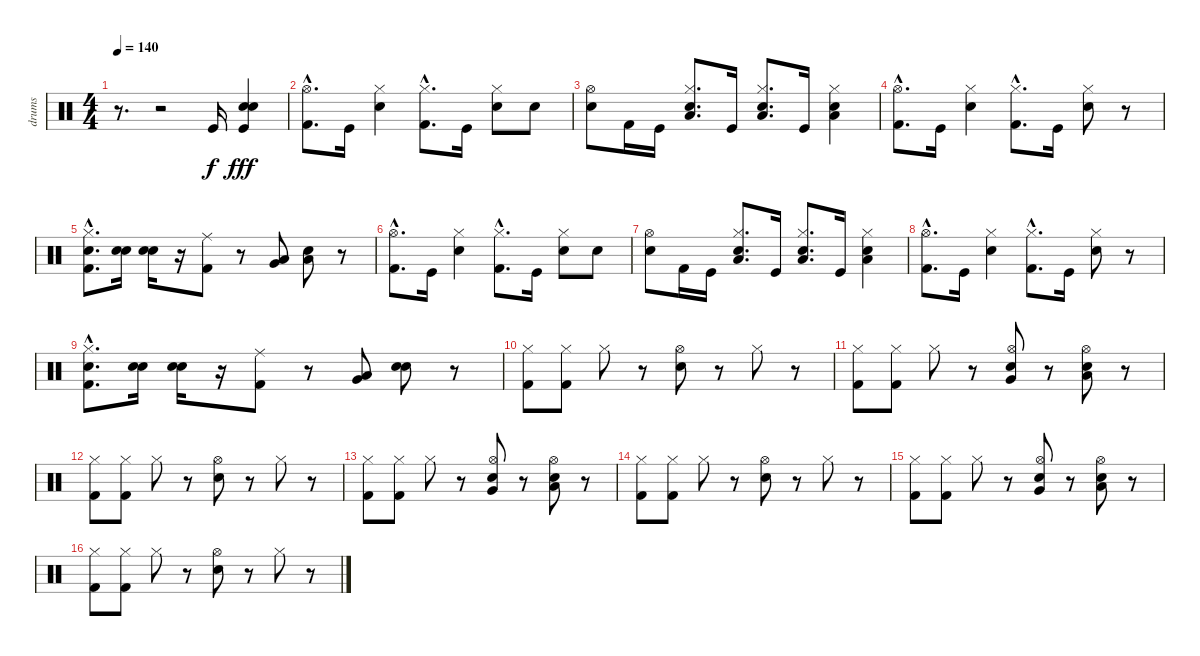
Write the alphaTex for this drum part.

\track ("drums" "drums") {instrument percussion}
\staff {score}
\articulation defaults
\ts (4 4)
\tempo 140
\clef neutral
\ks c
r.8{d dy f} r.2 "Kick (hit)".16 ("Electric Snare (hit)" "Kick (hit)" "Snare (hit) 2").4{dy fff} |
("Hi-Hat (open)"{hac} "Kick (hit) 2"{hac}).8{d} "Kick (hit)".16 ("Hi-Hat (closed)" "Snare (hit) 2").4 ("Hi-Hat (closed)"{hac} "Kick (hit) 2"{hac}).8{d} "Kick (hit)".16 ("Hi-Hat (closed)" "Snare (hit) 2").8 "Snare (hit) 2".8 |
("Hi-Hat (open)" "Snare (hit) 2").8 "Kick (hit) 2".16 "Kick (hit)".16 ("Hi-Hat (closed)" "Low Tom (hit)" "Snare (hit) 2").8{d} "Kick (hit)".16 ("Hi-Hat (closed)" "Low Tom (hit)" "Snare (hit) 2").8{d} "Kick (hit)".16 ("Hi-Hat (closed)" "Low Tom (hit)" "Snare (hit) 2").4 |
("Hi-Hat (open)"{hac} "Kick (hit) 2"{hac}).8{d} "Kick (hit)".16 ("Hi-Hat (closed)" "Snare (hit) 2").4 ("Hi-Hat (closed)"{hac} "Kick (hit) 2"{hac}).8{d} "Kick (hit)".16 ("Hi-Hat (closed)" "Snare (hit) 2").8 r.8 |
("Hi-Hat (closed)" "Snare (hit) 2"{hac} "Kick (hit) 2").8{d} ("Electric Snare (hit)" "Snare (hit) 2").16 ("Snare (hit) 2" "Electric Snare (hit)").16 r.16 ("Ride (middle)" "Kick (hit) 2").8 r.8 ("Very Low Tom (hit)" "Low Tom (hit)").8 ("Low Tom (hit)" "Snare (hit) 2").8 r.8 |
("Hi-Hat (open)"{hac} "Kick (hit) 2"{hac}).8{d} "Kick (hit)".16 ("Hi-Hat (closed)" "Snare (hit) 2").4 ("Hi-Hat (closed)"{hac} "Kick (hit) 2"{hac}).8{d} "Kick (hit)".16 ("Hi-Hat (closed)" "Snare (hit) 2").8 "Snare (hit) 2".8 |
("Hi-Hat (open)" "Snare (hit) 2").8 "Kick (hit) 2".16 "Kick (hit)".16 ("Hi-Hat (closed)" "Low Tom (hit)" "Snare (hit) 2").8{d} "Kick (hit)".16 ("Hi-Hat (closed)" "Low Tom (hit)" "Snare (hit) 2").8{d} "Kick (hit)".16 ("Hi-Hat (closed)" "Low Tom (hit)" "Snare (hit) 2").4 |
("Hi-Hat (open)"{hac} "Kick (hit) 2"{hac}).8{d} "Kick (hit)".16 ("Hi-Hat (closed)" "Snare (hit) 2").4 ("Hi-Hat (closed)"{hac} "Kick (hit) 2"{hac}).8{d} "Kick (hit)".16 ("Hi-Hat (closed)" "Snare (hit) 2").8 r.8 |
("Hi-Hat (closed)" "Snare (hit) 2"{hac} "Kick (hit) 2").8{d} ("Electric Snare (hit)" "Snare (hit) 2").16 ("Snare (hit) 2" "Electric Snare (hit)").16 r.16 ("Ride (middle)" "Kick (hit) 2").8 r.8 ("Very Low Tom (hit)" "Low Tom (hit)").8 ("Electric Snare (hit)" "Snare (hit) 2").8 r.8 |
("Hi-Hat (closed)" "Kick (hit) 2").8 ("Hi-Hat (closed)" "Kick (hit) 2").8 "Hi-Hat (closed)".8 r.8 ("Hi-Hat (open)" "Snare (hit) 2").8 r.8 "Hi-Hat (closed)".8 r.8 |
("Hi-Hat (closed)" "Kick (hit) 2").8 ("Hi-Hat (closed)" "Kick (hit) 2").8 "Hi-Hat (closed)".8 r.8 ("Very Low Tom (hit)" "Hi-Hat (open)" "Snare (hit) 2").8 r.8 ("Low Tom (hit)" "Snare (hit) 2" "Hi-Hat (open)").8 r.8 |
("Hi-Hat (closed)" "Kick (hit) 2").8 ("Hi-Hat (closed)" "Kick (hit) 2").8 "Hi-Hat (closed)".8 r.8 ("Hi-Hat (open)" "Snare (hit) 2").8 r.8 "Hi-Hat (closed)".8 r.8 |
("Hi-Hat (closed)" "Kick (hit) 2").8 ("Hi-Hat (closed)" "Kick (hit) 2").8 "Hi-Hat (closed)".8 r.8 ("Very Low Tom (hit)" "Hi-Hat (open)" "Snare (hit) 2").8 r.8 ("Low Tom (hit)" "Snare (hit) 2" "Hi-Hat (open)").8 r.8 |
("Hi-Hat (closed)" "Kick (hit) 2").8 ("Hi-Hat (closed)" "Kick (hit) 2").8 "Hi-Hat (closed)".8 r.8 ("Hi-Hat (open)" "Snare (hit) 2").8 r.8 "Hi-Hat (closed)".8 r.8 |
("Hi-Hat (closed)" "Kick (hit) 2").8 ("Hi-Hat (closed)" "Kick (hit) 2").8 "Hi-Hat (closed)".8 r.8 ("Very Low Tom (hit)" "Hi-Hat (open)" "Snare (hit) 2").8 r.8 ("Low Tom (hit)" "Snare (hit) 2" "Hi-Hat (open)").8 r.8 |
("Hi-Hat (closed)" "Kick (hit) 2").8 ("Hi-Hat (closed)" "Kick (hit) 2").8 "Hi-Hat (closed)".8 r.8 ("Hi-Hat (open)" "Snare (hit) 2").8 r.8 "Hi-Hat (closed)".8 r.8
